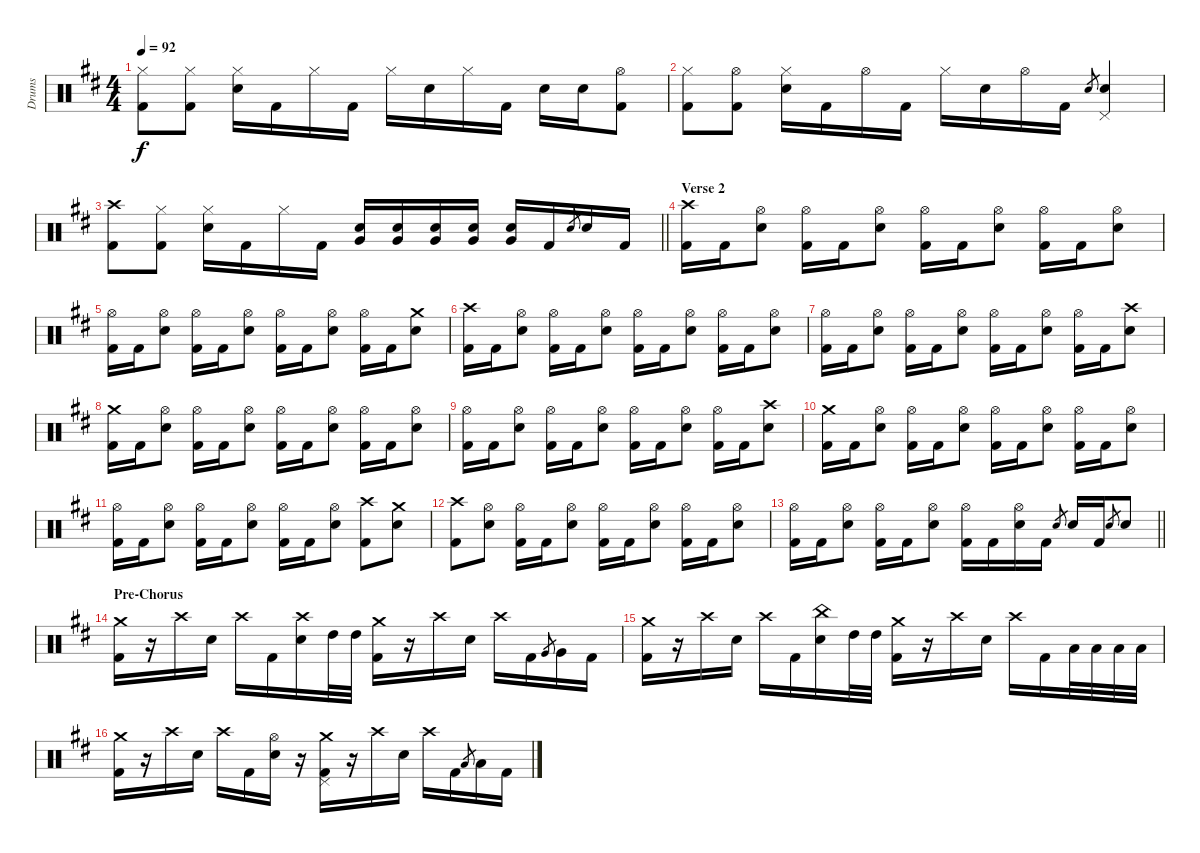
\track ("Drums" "Drums") {instrument percussion}
\staff {score}
\articulation defaults
\ts (4 4)
\tempo 92
\clef neutral
\ks d
("Hi-Hat (closed)" "Kick (hit) 2").8{dy f} ("Hi-Hat (closed)" "Kick (hit) 2").8 ("Hi-Hat (closed)" "Snare (hit) 2").16 "Kick (hit) 2".16 "Hi-Hat (closed)".16 "Kick (hit) 2".16 "Hi-Hat (closed)".16 "Snare (hit) 2".16 "Hi-Hat (closed)".16 "Kick (hit) 2".16 "Snare (hit) 2".16 "Snare (hit) 2".16 ("Hi-Hat (open)" "Kick (hit) 2").8 |
("Hi-Hat (closed)" "Kick (hit) 2").8 ("Hi-Hat (open)" "Kick (hit) 2").8 ("Hi-Hat (closed)" "Snare (hit) 2").16 "Kick (hit) 2".16 "Hi-Hat (open)".16 "Kick (hit) 2".16 "Hi-Hat (closed)".16 "Snare (hit) 2".16 "Hi-Hat (open)".16 "Kick (hit) 2".16 "Snare (hit) 2".8{gr} ("Snare (hit) 2" "Pedal Hi-Hat (hit)").4 |
\barLineRight lightlight
("Crash high (hit)" "Kick (hit) 2").8 ("Hi-Hat (closed)" "Kick (hit) 2").8 ("Hi-Hat (closed)" "Snare (hit) 2").16 "Kick (hit) 2".16 "Hi-Hat (closed)".16 "Kick (hit) 2".16 ("Very Low Tom (hit)" "Snare (hit) 2").16 ("Very Low Tom (hit)" "Snare (hit) 2").16 ("Very Low Tom (hit)" "Snare (hit) 2").16 ("Very Low Tom (hit)" "Snare (hit) 2").16 ("Very Low Tom (hit)" "Snare (hit) 2").16 "Kick (hit) 2".16 "Snare (hit) 2".8{gr} "Snare (hit) 2".16 "Kick (hit) 2".16 |
\section ("" "Verse 2")
("Crash high (hit)" "Kick (hit) 2").16 "Kick (hit) 2".16 ("Hi-Hat (open)" "Snare (hit) 2").8 ("Hi-Hat (open)" "Kick (hit) 2").16 "Kick (hit) 2".16 ("Hi-Hat (open)" "Snare (hit) 2").8 ("Hi-Hat (open)" "Kick (hit) 2").16 "Kick (hit) 2".16 ("Hi-Hat (open)" "Snare (hit) 2").8 ("Hi-Hat (open)" "Kick (hit) 2").16 "Kick (hit) 2".16 ("Hi-Hat (open)" "Snare (hit) 2").8 |
("Hi-Hat (open)" "Kick (hit) 2").16 "Kick (hit) 2".16 ("Hi-Hat (open)" "Snare (hit) 2").8 ("Hi-Hat (open)" "Kick (hit) 2").16 "Kick (hit) 2".16 ("Hi-Hat (open)" "Snare (hit) 2").8 ("Hi-Hat (open)" "Kick (hit) 2").16 "Kick (hit) 2".16 ("Hi-Hat (open)" "Snare (hit) 2").8 ("Hi-Hat (open)" "Kick (hit) 2").16 "Kick (hit) 2".16 ("Crash medium (hit)" "Snare (hit) 2").8 |
("Crash high (hit)" "Kick (hit) 2").16 "Kick (hit) 2".16 ("Hi-Hat (open)" "Snare (hit) 2").8 ("Hi-Hat (open)" "Kick (hit) 2").16 "Kick (hit) 2".16 ("Hi-Hat (open)" "Snare (hit) 2").8 ("Hi-Hat (open)" "Kick (hit) 2").16 "Kick (hit) 2".16 ("Hi-Hat (open)" "Snare (hit) 2").8 ("Hi-Hat (open)" "Kick (hit) 2").16 "Kick (hit) 2".16 ("Hi-Hat (open)" "Snare (hit) 2").8 |
("Hi-Hat (open)" "Kick (hit) 2").16 "Kick (hit) 2".16 ("Hi-Hat (open)" "Snare (hit) 2").8 ("Hi-Hat (open)" "Kick (hit) 2").16 "Kick (hit) 2".16 ("Hi-Hat (open)" "Snare (hit) 2").8 ("Hi-Hat (open)" "Kick (hit) 2").16 "Kick (hit) 2".16 ("Hi-Hat (open)" "Snare (hit) 2").8 ("Hi-Hat (open)" "Kick (hit) 2").16 "Kick (hit) 2".16 ("Crash high (hit)" "Snare (hit) 2").8 |
("Crash medium (hit)" "Kick (hit) 2").16 "Kick (hit) 2".16 ("Hi-Hat (open)" "Snare (hit) 2").8 ("Hi-Hat (open)" "Kick (hit) 2").16 "Kick (hit) 2".16 ("Hi-Hat (open)" "Snare (hit) 2").8 ("Hi-Hat (open)" "Kick (hit) 2").16 "Kick (hit) 2".16 ("Hi-Hat (open)" "Snare (hit) 2").8 ("Hi-Hat (open)" "Kick (hit) 2").16 "Kick (hit) 2".16 ("Hi-Hat (open)" "Snare (hit) 2").8 |
("Hi-Hat (open)" "Kick (hit) 2").16 "Kick (hit) 2".16 ("Hi-Hat (open)" "Snare (hit) 2").8 ("Hi-Hat (open)" "Kick (hit) 2").16 "Kick (hit) 2".16 ("Hi-Hat (open)" "Snare (hit) 2").8 ("Hi-Hat (open)" "Kick (hit) 2").16 "Kick (hit) 2".16 ("Hi-Hat (open)" "Snare (hit) 2").8 ("Hi-Hat (open)" "Kick (hit) 2").16 "Kick (hit) 2".16 ("Crash high (hit)" "Snare (hit) 2").8 |
("Crash medium (hit)" "Kick (hit) 2").16 "Kick (hit) 2".16 ("Hi-Hat (open)" "Snare (hit) 2").8 ("Hi-Hat (open)" "Kick (hit) 2").16 "Kick (hit) 2".16 ("Hi-Hat (open)" "Snare (hit) 2").8 ("Hi-Hat (open)" "Kick (hit) 2").16 "Kick (hit) 2".16 ("Hi-Hat (open)" "Snare (hit) 2").8 ("Hi-Hat (open)" "Kick (hit) 2").16 "Kick (hit) 2".16 ("Hi-Hat (open)" "Snare (hit) 2").8 |
("Hi-Hat (open)" "Kick (hit) 2").16 "Kick (hit) 2".16 ("Hi-Hat (open)" "Snare (hit) 2").8 ("Hi-Hat (open)" "Kick (hit) 2").16 "Kick (hit) 2".16 ("Hi-Hat (open)" "Snare (hit) 2").8 ("Hi-Hat (open)" "Kick (hit) 2").16 "Kick (hit) 2".16 ("Hi-Hat (open)" "Snare (hit) 2").8 ("Crash high (hit)" "Kick (hit) 2").8 ("Crash medium (hit)" "Snare (hit) 2").8 |
("Crash high (hit)" "Kick (hit) 2").8 ("Hi-Hat (open)" "Snare (hit) 2").8 ("Hi-Hat (open)" "Kick (hit) 2").16 "Kick (hit) 2".16 ("Hi-Hat (open)" "Snare (hit) 2").8 ("Hi-Hat (open)" "Kick (hit) 2").16 "Kick (hit) 2".16 ("Hi-Hat (open)" "Snare (hit) 2").8 ("Hi-Hat (open)" "Kick (hit) 2").16 "Kick (hit) 2".16 ("Hi-Hat (open)" "Snare (hit) 2").8 |
\barLineRight lightlight
("Hi-Hat (open)" "Kick (hit) 2").16 "Kick (hit) 2".16 ("Hi-Hat (open)" "Snare (hit) 2").8 ("Hi-Hat (open)" "Kick (hit) 2").16 "Kick (hit) 2".16 ("Hi-Hat (open)" "Snare (hit) 2").8 ("Hi-Hat (open)" "Kick (hit) 2").16 "Kick (hit) 2".16 ("Hi-Hat (open)" "Snare (hit) 2").16 "Kick (hit) 2".16 "Snare (hit) 2".8{gr} "Snare (hit) 2".16 "Kick (hit) 2".16 "Snare (hit) 2".8{gr} "Snare (hit) 2".8 |
\section ("" "Pre-Chorus")
("Crash medium (hit)" "Kick (hit) 2").16 r.16 "Crash high (hit)".16 "Snare (hit) 2".16 "Crash high (hit)".16 "Kick (hit) 2".16 ("Crash high (hit)" "Snare (hit) 2").16 "High Tom (hit)".32 "High Tom (hit)".32 ("Crash medium (hit)" "Kick (hit) 2").16 r.16 "Crash high (hit)".16 "Snare (hit) 2".16 "Crash high (hit)".16 "Kick (hit) 2".16 "Very Low Tom (hit)".8{gr} "Very Low Tom (hit)".16 "Kick (hit) 2".16 |
("Crash medium (hit)" "Kick (hit) 2").16 r.16 "Crash high (hit)".16 "Snare (hit) 2".16 "Crash high (hit)".16 "Kick (hit) 2".16 ("China (hit)" "Snare (hit) 2").16 "High Tom (hit)".32 "High Tom (hit)".32 ("Crash medium (hit)" "Kick (hit) 2").16 r.16 "Crash high (hit)".16 "Snare (hit) 2".16 "Crash high (hit)".16 "Kick (hit) 2".16 "Low Tom (hit)".32 "Low Tom (hit)".32 "Low Tom (hit)".32 "Low Tom (hit)".32 |
("Crash medium (hit)" "Kick (hit) 2").16 r.16 "Crash high (hit)".16 "Snare (hit) 2".16 "Crash high (hit)".16 "Kick (hit) 2".16 ("Hi-Hat (open)" "Snare (hit) 2").16 r.16 ("Crash medium (hit)" "Kick (hit) 2" "Pedal Hi-Hat (hit)").16 r.16 "Crash high (hit)".16 "Snare (hit) 2".16 "Crash high (hit)".16 "Kick (hit) 2".16 "Low Tom (hit)".8{gr} "Low Tom (hit)".16 "Kick (hit) 2".16
